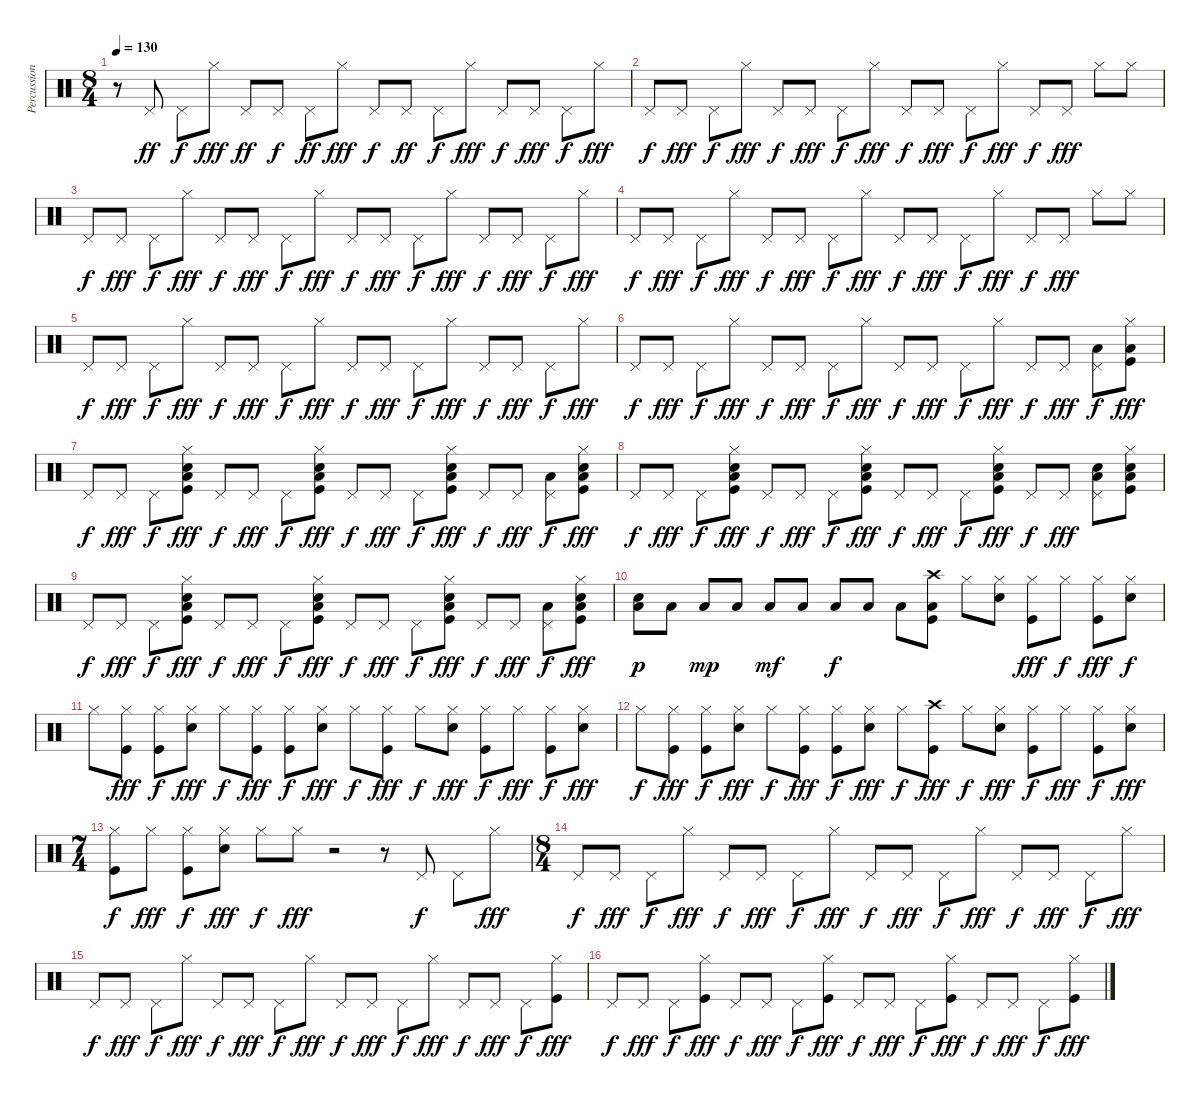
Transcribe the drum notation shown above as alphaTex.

\track ("Percussion" "Percussion") {instrument percussion}
\staff {score}
\articulation defaults
\ts (8 4)
\tempo 130
\clef neutral
\ks c
r.8{dy ff} "Pedal Hi-Hat (hit)".8 "Pedal Hi-Hat (hit)".8{dy f} "Hi-Hat (closed)".8{dy fff} "Pedal Hi-Hat (hit)".8{dy ff} "Pedal Hi-Hat (hit)".8{dy f} "Pedal Hi-Hat (hit)".8{dy ff} "Hi-Hat (closed)".8{dy fff} "Pedal Hi-Hat (hit)".8{dy f} "Pedal Hi-Hat (hit)".8{dy ff} "Pedal Hi-Hat (hit)".8{dy f} "Hi-Hat (closed)".8{dy fff} "Pedal Hi-Hat (hit)".8{dy f} "Pedal Hi-Hat (hit)".8{dy fff} "Pedal Hi-Hat (hit)".8{dy f} "Hi-Hat (closed)".8{dy fff} |
"Pedal Hi-Hat (hit)".8{dy f} "Pedal Hi-Hat (hit)".8{dy fff} "Pedal Hi-Hat (hit)".8{dy f} "Hi-Hat (closed)".8{dy fff} "Pedal Hi-Hat (hit)".8{dy f} "Pedal Hi-Hat (hit)".8{dy fff} "Pedal Hi-Hat (hit)".8{dy f} "Hi-Hat (closed)".8{dy fff} "Pedal Hi-Hat (hit)".8{dy f} "Pedal Hi-Hat (hit)".8{dy fff} "Pedal Hi-Hat (hit)".8{dy f} "Hi-Hat (closed)".8{dy fff} "Pedal Hi-Hat (hit)".8{dy f} "Pedal Hi-Hat (hit)".8{dy fff} "Hi-Hat (closed)".8 "Hi-Hat (closed)".8 |
"Pedal Hi-Hat (hit)".8{dy f} "Pedal Hi-Hat (hit)".8{dy fff} "Pedal Hi-Hat (hit)".8{dy f} "Hi-Hat (closed)".8{dy fff} "Pedal Hi-Hat (hit)".8{dy f} "Pedal Hi-Hat (hit)".8{dy fff} "Pedal Hi-Hat (hit)".8{dy f} "Hi-Hat (closed)".8{dy fff} "Pedal Hi-Hat (hit)".8{dy f} "Pedal Hi-Hat (hit)".8{dy fff} "Pedal Hi-Hat (hit)".8{dy f} "Hi-Hat (closed)".8{dy fff} "Pedal Hi-Hat (hit)".8{dy f} "Pedal Hi-Hat (hit)".8{dy fff} "Pedal Hi-Hat (hit)".8{dy f} "Hi-Hat (closed)".8{dy fff} |
"Pedal Hi-Hat (hit)".8{dy f} "Pedal Hi-Hat (hit)".8{dy fff} "Pedal Hi-Hat (hit)".8{dy f} "Hi-Hat (closed)".8{dy fff} "Pedal Hi-Hat (hit)".8{dy f} "Pedal Hi-Hat (hit)".8{dy fff} "Pedal Hi-Hat (hit)".8{dy f} "Hi-Hat (closed)".8{dy fff} "Pedal Hi-Hat (hit)".8{dy f} "Pedal Hi-Hat (hit)".8{dy fff} "Pedal Hi-Hat (hit)".8{dy f} "Hi-Hat (closed)".8{dy fff} "Pedal Hi-Hat (hit)".8{dy f} "Pedal Hi-Hat (hit)".8{dy fff} "Hi-Hat (closed)".8 "Hi-Hat (closed)".8 |
"Pedal Hi-Hat (hit)".8{dy f} "Pedal Hi-Hat (hit)".8{dy fff} "Pedal Hi-Hat (hit)".8{dy f} "Hi-Hat (closed)".8{dy fff} "Pedal Hi-Hat (hit)".8{dy f} "Pedal Hi-Hat (hit)".8{dy fff} "Pedal Hi-Hat (hit)".8{dy f} "Hi-Hat (closed)".8{dy fff} "Pedal Hi-Hat (hit)".8{dy f} "Pedal Hi-Hat (hit)".8{dy fff} "Pedal Hi-Hat (hit)".8{dy f} "Hi-Hat (closed)".8{dy fff} "Pedal Hi-Hat (hit)".8{dy f} "Pedal Hi-Hat (hit)".8{dy fff} "Pedal Hi-Hat (hit)".8{dy f} "Hi-Hat (closed)".8{dy fff} |
"Pedal Hi-Hat (hit)".8{dy f} "Pedal Hi-Hat (hit)".8{dy fff} "Pedal Hi-Hat (hit)".8{dy f} "Hi-Hat (closed)".8{dy fff} "Pedal Hi-Hat (hit)".8{dy f} "Pedal Hi-Hat (hit)".8{dy fff} "Pedal Hi-Hat (hit)".8{dy f} "Hi-Hat (closed)".8{dy fff} "Pedal Hi-Hat (hit)".8{dy f} "Pedal Hi-Hat (hit)".8{dy fff} "Pedal Hi-Hat (hit)".8{dy f} "Hi-Hat (closed)".8{dy fff} "Pedal Hi-Hat (hit)".8{dy f} "Pedal Hi-Hat (hit)".8{dy fff} ("Pedal Hi-Hat (hit)" "Low Tom (hit)").8{dy f} ("Hi-Hat (closed)" "Low Floor Tom (hit)" "Kick (hit)").8{dy fff} |
"Pedal Hi-Hat (hit)".8{dy f} "Pedal Hi-Hat (hit)".8{dy fff} "Pedal Hi-Hat (hit)".8{dy f} ("Hi-Hat (closed)" "Hand Clap (hit)" "Low Floor Tom (hit)" "Kick (hit)").8{dy fff} "Pedal Hi-Hat (hit)".8{dy f} "Pedal Hi-Hat (hit)".8{dy fff} "Pedal Hi-Hat (hit)".8{dy f} ("Hi-Hat (closed)" "Hand Clap (hit)" "Low Floor Tom (hit)" "Kick (hit)").8{dy fff} "Pedal Hi-Hat (hit)".8{dy f} "Pedal Hi-Hat (hit)".8{dy fff} "Pedal Hi-Hat (hit)".8{dy f} ("Hi-Hat (closed)" "Hand Clap (hit)" "Low Floor Tom (hit)" "Kick (hit)").8{dy fff} "Pedal Hi-Hat (hit)".8{dy f} "Pedal Hi-Hat (hit)".8{dy fff} ("Pedal Hi-Hat (hit)" "Low Tom (hit)").8{dy f} ("Hi-Hat (closed)" "Hand Clap (hit)" "Low Floor Tom (hit)" "Kick (hit)").8{dy fff} |
"Pedal Hi-Hat (hit)".8{dy f} "Pedal Hi-Hat (hit)".8{dy fff} "Pedal Hi-Hat (hit)".8{dy f} ("Hi-Hat (closed)" "Hand Clap (hit)" "Low Floor Tom (hit)" "Kick (hit)").8{dy fff} "Pedal Hi-Hat (hit)".8{dy f} "Pedal Hi-Hat (hit)".8{dy fff} "Pedal Hi-Hat (hit)".8{dy f} ("Hi-Hat (closed)" "Hand Clap (hit)" "Low Floor Tom (hit)" "Kick (hit)").8{dy fff} "Pedal Hi-Hat (hit)".8{dy f} "Pedal Hi-Hat (hit)".8{dy fff} "Pedal Hi-Hat (hit)".8{dy f} ("Hi-Hat (closed)" "Hand Clap (hit)" "Low Floor Tom (hit)" "Kick (hit)").8{dy fff} "Pedal Hi-Hat (hit)".8{dy f} "Pedal Hi-Hat (hit)".8{dy fff} ("Pedal Hi-Hat (hit)" "Hand Clap (hit)" "Low Tom (hit)").8 ("Hi-Hat (closed)" "Hand Clap (hit)" "Low Floor Tom (hit)" "Kick (hit)").8 |
"Pedal Hi-Hat (hit)".8{dy f} "Pedal Hi-Hat (hit)".8{dy fff} "Pedal Hi-Hat (hit)".8{dy f} ("Hi-Hat (closed)" "Hand Clap (hit)" "Low Floor Tom (hit)" "Kick (hit)").8{dy fff} "Pedal Hi-Hat (hit)".8{dy f} "Pedal Hi-Hat (hit)".8{dy fff} "Pedal Hi-Hat (hit)".8{dy f} ("Hi-Hat (closed)" "Hand Clap (hit)" "Low Floor Tom (hit)" "Kick (hit)").8{dy fff} "Pedal Hi-Hat (hit)".8{dy f} "Pedal Hi-Hat (hit)".8{dy fff} "Pedal Hi-Hat (hit)".8{dy f} ("Hi-Hat (closed)" "Hand Clap (hit)" "Low Floor Tom (hit)" "Kick (hit)").8{dy fff} "Pedal Hi-Hat (hit)".8{dy f} "Pedal Hi-Hat (hit)".8{dy fff} ("Pedal Hi-Hat (hit)" "Low Tom (hit)").8{dy f} ("Hi-Hat (closed)" "Hand Clap (hit)" "Low Floor Tom (hit)" "Kick (hit)").8{dy fff} |
("Hand Clap (hit)" "Low Floor Tom (hit)").8{dy p} "Low Floor Tom (hit)".8 "Low Floor Tom (hit)".8{dy mp} "Low Floor Tom (hit)".8 "Low Floor Tom (hit)".8{dy mf} "Low Floor Tom (hit)".8 "Low Floor Tom (hit)".8{dy f} "Low Floor Tom (hit)".8 "Low Floor Tom (hit)".8 ("Crash high (hit)" "Low Floor Tom (hit)" "Kick (hit)").8 "Hi-Hat (closed)".8 ("Hi-Hat (closed)" "Electric Snare (hit)").8 ("Hi-Hat (closed)" "Kick (hit)").8{dy fff} "Hi-Hat (closed)".8{dy f} ("Hi-Hat (closed)" "Kick (hit)").8{dy fff} ("Hi-Hat (closed)" "Electric Snare (hit)").8{dy f} |
"Hi-Hat (closed)".8 ("Hi-Hat (closed)" "Kick (hit)").8{dy fff} ("Hi-Hat (closed)" "Kick (hit)").8{dy f} ("Hi-Hat (closed)" "Electric Snare (hit)").8{dy fff} "Hi-Hat (closed)".8{dy f} ("Hi-Hat (closed)" "Kick (hit)").8{dy fff} ("Hi-Hat (closed)" "Kick (hit)").8{dy f} ("Hi-Hat (closed)" "Electric Snare (hit)").8{dy fff} "Hi-Hat (closed)".8{dy f} ("Hi-Hat (closed)" "Kick (hit)").8{dy fff} "Hi-Hat (closed)".8{dy f} ("Hi-Hat (closed)" "Electric Snare (hit)").8{dy fff} ("Hi-Hat (closed)" "Kick (hit)").8{dy f} "Hi-Hat (closed)".8{dy fff} ("Hi-Hat (closed)" "Kick (hit)").8{dy f} ("Hi-Hat (closed)" "Electric Snare (hit)").8{dy fff} |
"Hi-Hat (closed)".8{dy f} ("Hi-Hat (closed)" "Kick (hit)").8{dy fff} ("Hi-Hat (closed)" "Kick (hit)").8{dy f} ("Hi-Hat (closed)" "Electric Snare (hit)").8{dy fff} "Hi-Hat (closed)".8{dy f} ("Hi-Hat (closed)" "Kick (hit)").8{dy fff} ("Hi-Hat (closed)" "Kick (hit)").8{dy f} ("Hi-Hat (closed)" "Electric Snare (hit)").8{dy fff} "Hi-Hat (closed)".8{dy f} ("Crash high (hit)" "Kick (hit)").8{dy fff} "Hi-Hat (closed)".8{dy f} ("Hi-Hat (closed)" "Electric Snare (hit)").8{dy fff} ("Hi-Hat (closed)" "Kick (hit)").8{dy f} "Hi-Hat (closed)".8{dy fff} ("Hi-Hat (closed)" "Kick (hit)").8{dy f} ("Hi-Hat (closed)" "Electric Snare (hit)").8{dy fff} |
\ts (7 4)
("Hi-Hat (closed)" "Kick (hit)").8{dy f} "Hi-Hat (closed)".8{dy fff} ("Hi-Hat (closed)" "Kick (hit)").8{dy f} ("Hi-Hat (closed)" "Electric Snare (hit)").8{dy fff} "Hi-Hat (closed)".8{dy f} "Hi-Hat (closed)".8{dy fff} r.2 r.8 "Pedal Hi-Hat (hit)".8{dy f} "Pedal Hi-Hat (hit)".8 "Hi-Hat (closed)".8{dy fff} |
\ts (8 4)
"Pedal Hi-Hat (hit)".8{dy f} "Pedal Hi-Hat (hit)".8{dy fff} "Pedal Hi-Hat (hit)".8{dy f} "Hi-Hat (closed)".8{dy fff} "Pedal Hi-Hat (hit)".8{dy f} "Pedal Hi-Hat (hit)".8{dy fff} "Pedal Hi-Hat (hit)".8{dy f} "Hi-Hat (closed)".8{dy fff} "Pedal Hi-Hat (hit)".8{dy f} "Pedal Hi-Hat (hit)".8{dy fff} "Pedal Hi-Hat (hit)".8{dy f} "Hi-Hat (closed)".8{dy fff} "Pedal Hi-Hat (hit)".8{dy f} "Pedal Hi-Hat (hit)".8{dy fff} "Pedal Hi-Hat (hit)".8{dy f} "Hi-Hat (closed)".8{dy fff} |
"Pedal Hi-Hat (hit)".8{dy f} "Pedal Hi-Hat (hit)".8{dy fff} "Pedal Hi-Hat (hit)".8{dy f} "Hi-Hat (closed)".8{dy fff} "Pedal Hi-Hat (hit)".8{dy f} "Pedal Hi-Hat (hit)".8{dy fff} "Pedal Hi-Hat (hit)".8{dy f} "Hi-Hat (closed)".8{dy fff} "Pedal Hi-Hat (hit)".8{dy f} "Pedal Hi-Hat (hit)".8{dy fff} "Pedal Hi-Hat (hit)".8{dy f} "Hi-Hat (closed)".8{dy fff} "Pedal Hi-Hat (hit)".8{dy f} "Pedal Hi-Hat (hit)".8{dy fff} "Pedal Hi-Hat (hit)".8{dy f} ("Hi-Hat (closed)" "Kick (hit)").8{dy fff} |
"Pedal Hi-Hat (hit)".8{dy f} "Pedal Hi-Hat (hit)".8{dy fff} "Pedal Hi-Hat (hit)".8{dy f} ("Hi-Hat (closed)" "Kick (hit)").8{dy fff} "Pedal Hi-Hat (hit)".8{dy f} "Pedal Hi-Hat (hit)".8{dy fff} "Pedal Hi-Hat (hit)".8{dy f} ("Hi-Hat (closed)" "Kick (hit)").8{dy fff} "Pedal Hi-Hat (hit)".8{dy f} "Pedal Hi-Hat (hit)".8{dy fff} "Pedal Hi-Hat (hit)".8{dy f} ("Hi-Hat (closed)" "Kick (hit)").8{dy fff} "Pedal Hi-Hat (hit)".8{dy f} "Pedal Hi-Hat (hit)".8{dy fff} "Pedal Hi-Hat (hit)".8{dy f} ("Hi-Hat (closed)" "Kick (hit)").8{dy fff}
